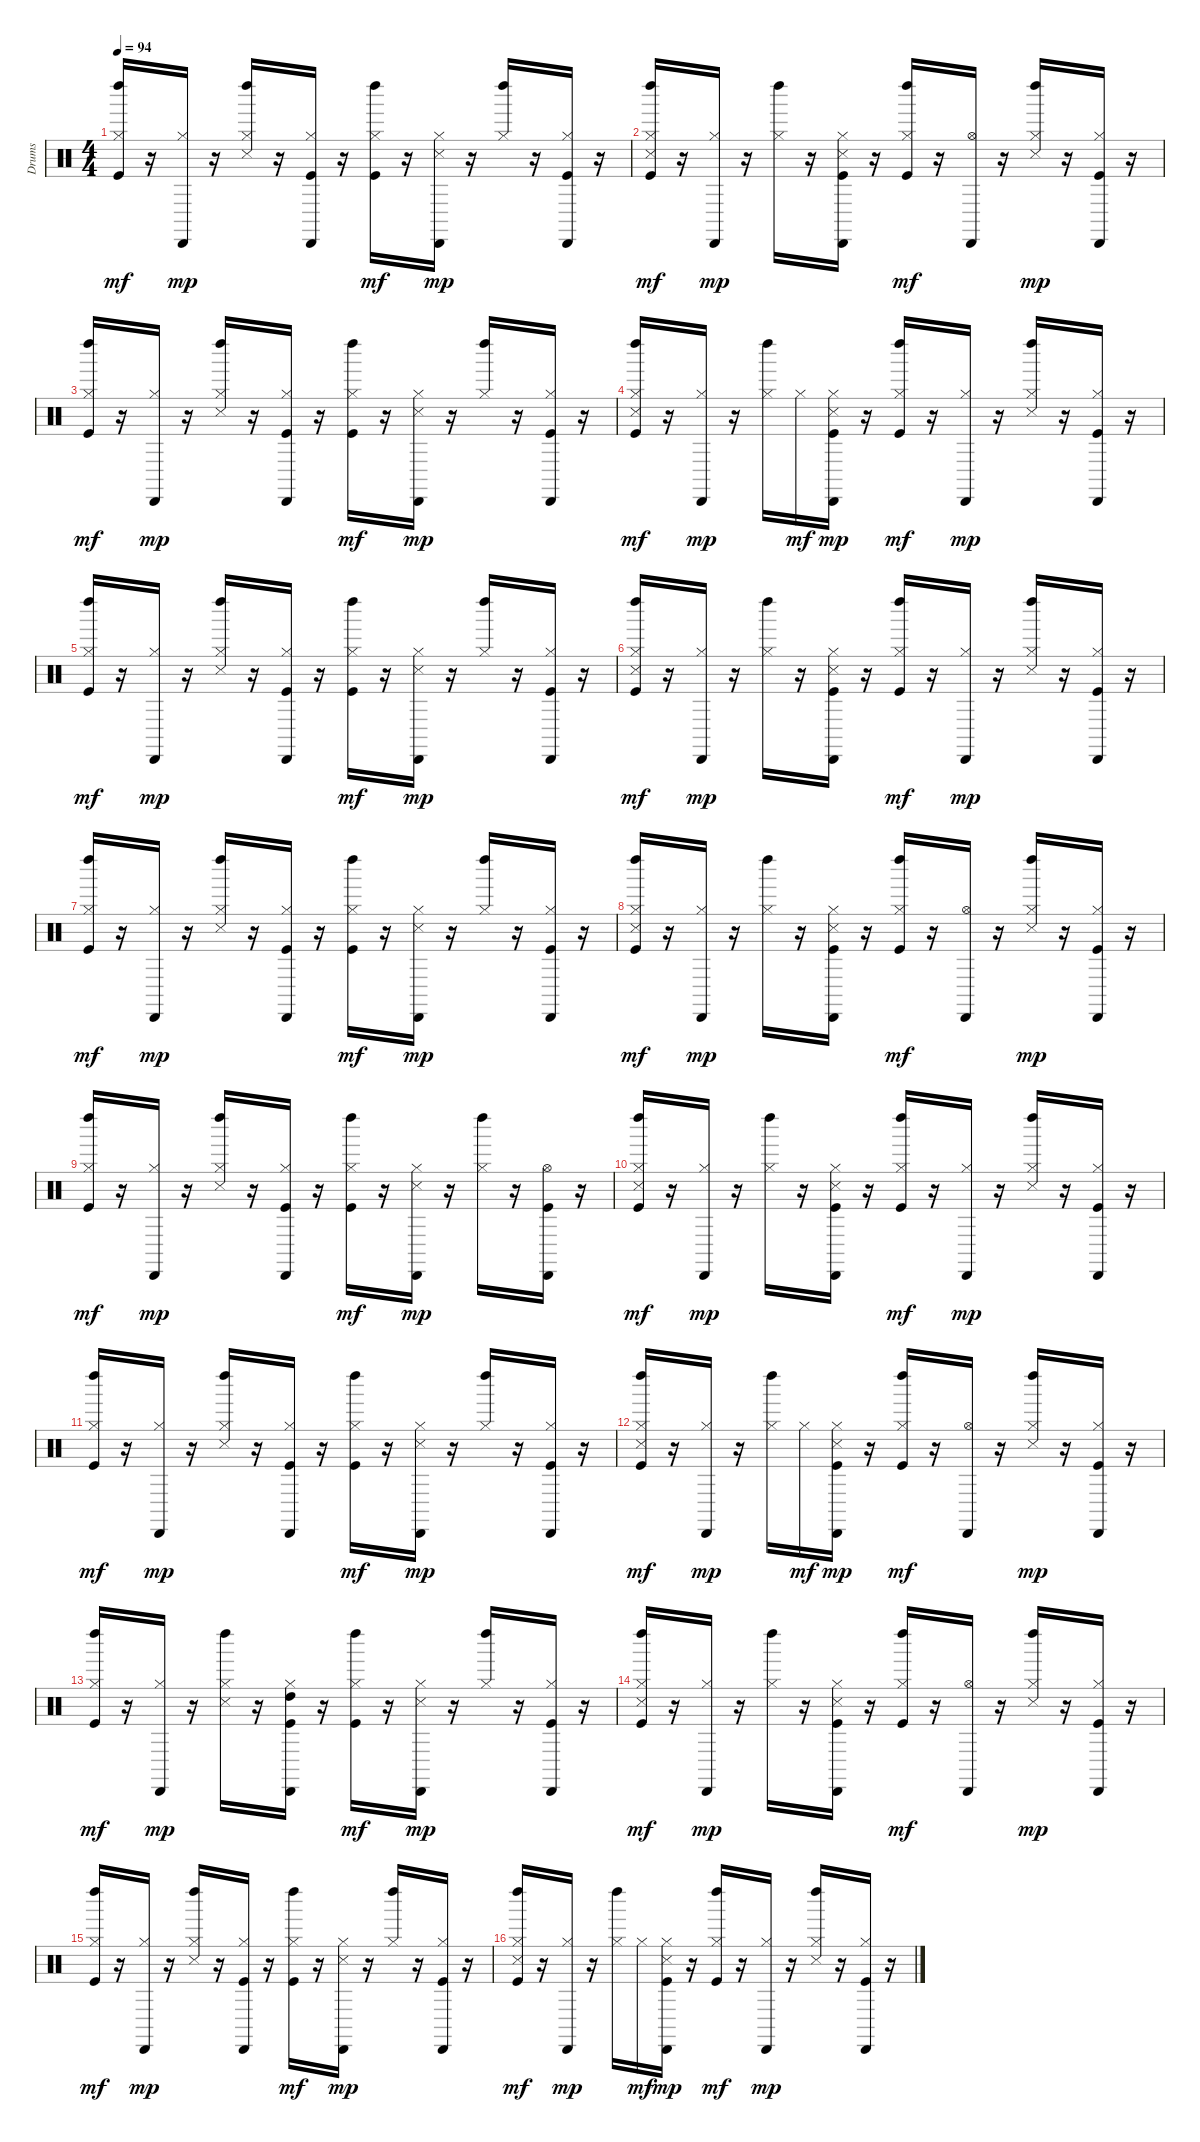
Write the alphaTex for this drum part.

\track ("Drums" "Drums") {instrument percussion}
\staff {score}
\articulation defaults
\ts (4 4)
\tempo 94
\clef neutral
\ks c
("Left Maraca (hit)" "Hi-Hat (closed)" "Kick (hit)").16{dy mf} r.16 ("Cabasa (hit)" "Hi-Hat (closed)").16{dy mp} r.16 ("Left Maraca (hit)" "Hi-Hat (closed)" "Snare (side stick) 3").16 r.16 ("Cabasa (hit)" "Hi-Hat (closed)" "Kick (hit)").16 r.16 ("Left Maraca (hit)" "Hi-Hat (closed)" "Kick (hit)").16{dy mf} r.16 ("Cabasa (hit)" "Hi-Hat (closed)" "Snare (side stick) 3").16{dy mp} r.16 ("Left Maraca (hit)" "Hi-Hat (closed)").16 r.16 ("Cabasa (hit)" "Hi-Hat (closed)" "Kick (hit)").16 r.16 |
("Left Maraca (hit)" "Hi-Hat (closed)" "Snare (side stick) 3" "Kick (hit)").16{dy mf} r.16 ("Cabasa (hit)" "Hi-Hat (closed)").16{dy mp} r.16 ("Left Maraca (hit)" "Hi-Hat (closed)").16 r.16 ("Cabasa (hit)" "Hi-Hat (closed)" "Snare (side stick) 3" "Kick (hit)").16 r.16 ("Left Maraca (hit)" "Hi-Hat (closed)" "Kick (hit)").16{dy mf} r.16 ("Cabasa (hit)" "Hi-Hat (open)").16 r.16 ("Left Maraca (hit)" "Hi-Hat (closed)" "Snare (side stick) 3").16{dy mp} r.16 ("Cabasa (hit)" "Hi-Hat (closed)" "Kick (hit)").16 r.16 |
("Left Maraca (hit)" "Hi-Hat (closed)" "Kick (hit)").16{dy mf} r.16 ("Cabasa (hit)" "Hi-Hat (closed)").16{dy mp} r.16 ("Left Maraca (hit)" "Hi-Hat (closed)" "Snare (side stick) 3").16 r.16 ("Cabasa (hit)" "Hi-Hat (closed)" "Kick (hit)").16 r.16 ("Left Maraca (hit)" "Hi-Hat (closed)" "Kick (hit)").16{dy mf} r.16 ("Cabasa (hit)" "Hi-Hat (closed)" "Snare (side stick) 3").16{dy mp} r.16 ("Left Maraca (hit)" "Hi-Hat (closed)").16 r.16 ("Cabasa (hit)" "Hi-Hat (closed)" "Kick (hit)").16 r.16 |
("Left Maraca (hit)" "Hi-Hat (closed)" "Snare (side stick) 3" "Kick (hit)").16{dy mf} r.16 ("Cabasa (hit)" "Hi-Hat (closed)").16{dy mp} r.16 ("Left Maraca (hit)" "Hi-Hat (closed)").16 "Hi-Hat (closed)".16{dy mf} ("Cabasa (hit)" "Hi-Hat (closed)" "Snare (side stick) 3" "Kick (hit)").16{dy mp} r.16 ("Left Maraca (hit)" "Hi-Hat (closed)" "Kick (hit)").16{dy mf} r.16 ("Cabasa (hit)" "Hi-Hat (closed)").16{dy mp} r.16 ("Left Maraca (hit)" "Hi-Hat (closed)" "Snare (side stick) 3").16 r.16 ("Cabasa (hit)" "Hi-Hat (closed)" "Kick (hit)").16 r.16 |
("Left Maraca (hit)" "Hi-Hat (closed)" "Kick (hit)").16{dy mf} r.16 ("Cabasa (hit)" "Hi-Hat (closed)").16{dy mp} r.16 ("Left Maraca (hit)" "Hi-Hat (closed)" "Snare (side stick) 3").16 r.16 ("Cabasa (hit)" "Hi-Hat (closed)" "Kick (hit)").16 r.16 ("Left Maraca (hit)" "Hi-Hat (closed)" "Kick (hit)").16{dy mf} r.16 ("Cabasa (hit)" "Hi-Hat (closed)" "Snare (side stick) 3").16{dy mp} r.16 ("Left Maraca (hit)" "Hi-Hat (closed)").16 r.16 ("Cabasa (hit)" "Hi-Hat (closed)" "Kick (hit)").16 r.16 |
("Left Maraca (hit)" "Hi-Hat (closed)" "Snare (side stick) 3" "Kick (hit)").16{dy mf} r.16 ("Cabasa (hit)" "Hi-Hat (closed)").16{dy mp} r.16 ("Left Maraca (hit)" "Hi-Hat (closed)").16 r.16 ("Cabasa (hit)" "Hi-Hat (closed)" "Snare (side stick) 3" "Kick (hit)").16 r.16 ("Left Maraca (hit)" "Hi-Hat (closed)" "Kick (hit)").16{dy mf} r.16 ("Cabasa (hit)" "Hi-Hat (closed)").16{dy mp} r.16 ("Left Maraca (hit)" "Hi-Hat (closed)" "Snare (side stick) 3").16 r.16 ("Cabasa (hit)" "Hi-Hat (closed)" "Kick (hit)").16 r.16 |
("Left Maraca (hit)" "Hi-Hat (closed)" "Kick (hit)").16{dy mf} r.16 ("Cabasa (hit)" "Hi-Hat (closed)").16{dy mp} r.16 ("Left Maraca (hit)" "Hi-Hat (closed)" "Snare (side stick) 3").16 r.16 ("Cabasa (hit)" "Hi-Hat (closed)" "Kick (hit)").16 r.16 ("Left Maraca (hit)" "Hi-Hat (closed)" "Kick (hit)").16{dy mf} r.16 ("Cabasa (hit)" "Hi-Hat (closed)" "Snare (side stick) 3").16{dy mp} r.16 ("Left Maraca (hit)" "Hi-Hat (closed)").16 r.16 ("Cabasa (hit)" "Hi-Hat (closed)" "Kick (hit)").16 r.16 |
("Left Maraca (hit)" "Hi-Hat (closed)" "Snare (side stick) 3" "Kick (hit)").16{dy mf} r.16 ("Cabasa (hit)" "Hi-Hat (closed)").16{dy mp} r.16 ("Left Maraca (hit)" "Hi-Hat (closed)").16 r.16 ("Cabasa (hit)" "Hi-Hat (closed)" "Snare (side stick) 3" "Kick (hit)").16 r.16 ("Left Maraca (hit)" "Hi-Hat (closed)" "Kick (hit)").16{dy mf} r.16 ("Cabasa (hit)" "Hi-Hat (open)").16 r.16 ("Left Maraca (hit)" "Hi-Hat (closed)" "Snare (side stick) 3").16{dy mp} r.16 ("Cabasa (hit)" "Hi-Hat (closed)" "Kick (hit)").16 r.16 |
("Left Maraca (hit)" "Hi-Hat (closed)" "Kick (hit)").16{dy mf} r.16 ("Cabasa (hit)" "Hi-Hat (closed)").16{dy mp} r.16 ("Left Maraca (hit)" "Hi-Hat (closed)" "Snare (side stick) 3").16 r.16 ("Cabasa (hit)" "Hi-Hat (closed)" "Kick (hit)").16 r.16 ("Left Maraca (hit)" "Hi-Hat (closed)" "Kick (hit)").16{dy mf} r.16 ("Cabasa (hit)" "Hi-Hat (closed)" "Snare (side stick) 3").16{dy mp} r.16 ("Left Maraca (hit)" "Hi-Hat (closed)").16 r.16 ("Cabasa (hit)" "Hi-Hat (open)" "Kick (hit)").16 r.16 |
("Left Maraca (hit)" "Hi-Hat (closed)" "Snare (side stick) 3" "Kick (hit)").16{dy mf} r.16 ("Cabasa (hit)" "Hi-Hat (closed)").16{dy mp} r.16 ("Left Maraca (hit)" "Hi-Hat (closed)").16 r.16 ("Cabasa (hit)" "Hi-Hat (closed)" "Snare (side stick) 3" "Kick (hit)").16 r.16 ("Left Maraca (hit)" "Hi-Hat (closed)" "Kick (hit)").16{dy mf} r.16 ("Cabasa (hit)" "Hi-Hat (closed)").16{dy mp} r.16 ("Left Maraca (hit)" "Hi-Hat (closed)" "Snare (side stick) 3").16 r.16 ("Cabasa (hit)" "Hi-Hat (closed)" "Kick (hit)").16 r.16 |
("Left Maraca (hit)" "Hi-Hat (closed)" "Kick (hit)").16{dy mf} r.16 ("Cabasa (hit)" "Hi-Hat (closed)").16{dy mp} r.16 ("Left Maraca (hit)" "Hi-Hat (closed)" "Snare (side stick) 3").16 r.16 ("Cabasa (hit)" "Hi-Hat (closed)" "Kick (hit)").16 r.16 ("Left Maraca (hit)" "Hi-Hat (closed)" "Kick (hit)").16{dy mf} r.16 ("Cabasa (hit)" "Hi-Hat (closed)" "Snare (side stick) 3").16{dy mp} r.16 ("Left Maraca (hit)" "Hi-Hat (closed)").16 r.16 ("Cabasa (hit)" "Hi-Hat (closed)" "Kick (hit)").16 r.16 |
("Left Maraca (hit)" "Hi-Hat (closed)" "Snare (side stick) 3" "Kick (hit)").16{dy mf} r.16 ("Cabasa (hit)" "Hi-Hat (closed)").16{dy mp} r.16 ("Left Maraca (hit)" "Hi-Hat (closed)").16 "Hi-Hat (closed)".16{dy mf} ("Cabasa (hit)" "Hi-Hat (closed)" "Snare (side stick) 3" "Kick (hit)").16{dy mp} r.16 ("Left Maraca (hit)" "Hi-Hat (closed)" "Kick (hit)").16{dy mf} r.16 ("Cabasa (hit)" "Hi-Hat (open)").16 r.16 ("Left Maraca (hit)" "Hi-Hat (closed)" "Snare (side stick) 3").16{dy mp} r.16 ("Cabasa (hit)" "Hi-Hat (closed)" "Kick (hit)").16 r.16 |
("Left Maraca (hit)" "Hi-Hat (closed)" "Kick (hit)").16{dy mf} r.16 ("Cabasa (hit)" "Hi-Hat (closed)").16{dy mp} r.16 ("Left Maraca (hit)" "Hi-Hat (closed)" "Snare (side stick) 3").16 r.16 ("Cabasa (hit)" "High Tom (hit)" "Hi-Hat (closed)" "Kick (hit)").16 r.16 ("Left Maraca (hit)" "Hi-Hat (closed)" "Kick (hit)").16{dy mf} r.16 ("Cabasa (hit)" "Hi-Hat (closed)" "Snare (side stick) 3").16{dy mp} r.16 ("Left Maraca (hit)" "Hi-Hat (closed)").16 r.16 ("Cabasa (hit)" "Hi-Hat (closed)" "Kick (hit)").16 r.16 |
("Left Maraca (hit)" "Hi-Hat (closed)" "Snare (side stick) 3" "Kick (hit)").16{dy mf} r.16 ("Cabasa (hit)" "Hi-Hat (closed)").16{dy mp} r.16 ("Left Maraca (hit)" "Hi-Hat (closed)").16 r.16 ("Cabasa (hit)" "Hi-Hat (closed)" "Snare (side stick) 3" "Kick (hit)").16 r.16 ("Left Maraca (hit)" "Hi-Hat (closed)" "Kick (hit)").16{dy mf} r.16 ("Cabasa (hit)" "Hi-Hat (open)").16 r.16 ("Left Maraca (hit)" "Hi-Hat (closed)" "Snare (side stick) 3").16{dy mp} r.16 ("Cabasa (hit)" "Hi-Hat (closed)" "Kick (hit)").16 r.16 |
("Left Maraca (hit)" "Hi-Hat (closed)" "Kick (hit)").16{dy mf} r.16 ("Cabasa (hit)" "Hi-Hat (closed)").16{dy mp} r.16 ("Left Maraca (hit)" "Hi-Hat (closed)" "Snare (side stick) 3").16 r.16 ("Cabasa (hit)" "Hi-Hat (closed)" "Kick (hit)").16 r.16 ("Left Maraca (hit)" "Hi-Hat (closed)" "Kick (hit)").16{dy mf} r.16 ("Cabasa (hit)" "Hi-Hat (closed)" "Snare (side stick) 3").16{dy mp} r.16 ("Left Maraca (hit)" "Hi-Hat (closed)").16 r.16 ("Cabasa (hit)" "Hi-Hat (closed)" "Kick (hit)").16 r.16 |
("Left Maraca (hit)" "Hi-Hat (closed)" "Snare (side stick) 3" "Kick (hit)").16{dy mf} r.16 ("Cabasa (hit)" "Hi-Hat (closed)").16{dy mp} r.16 ("Left Maraca (hit)" "Hi-Hat (closed)").16 "Hi-Hat (closed)".16{dy mf} ("Cabasa (hit)" "Hi-Hat (closed)" "Snare (side stick) 3" "Kick (hit)").16{dy mp} r.16 ("Left Maraca (hit)" "Hi-Hat (closed)" "Kick (hit)").16{dy mf} r.16 ("Cabasa (hit)" "Hi-Hat (closed)").16{dy mp} r.16 ("Left Maraca (hit)" "Hi-Hat (closed)" "Snare (side stick) 3").16 r.16 ("Cabasa (hit)" "Hi-Hat (closed)" "Kick (hit)").16 r.16
